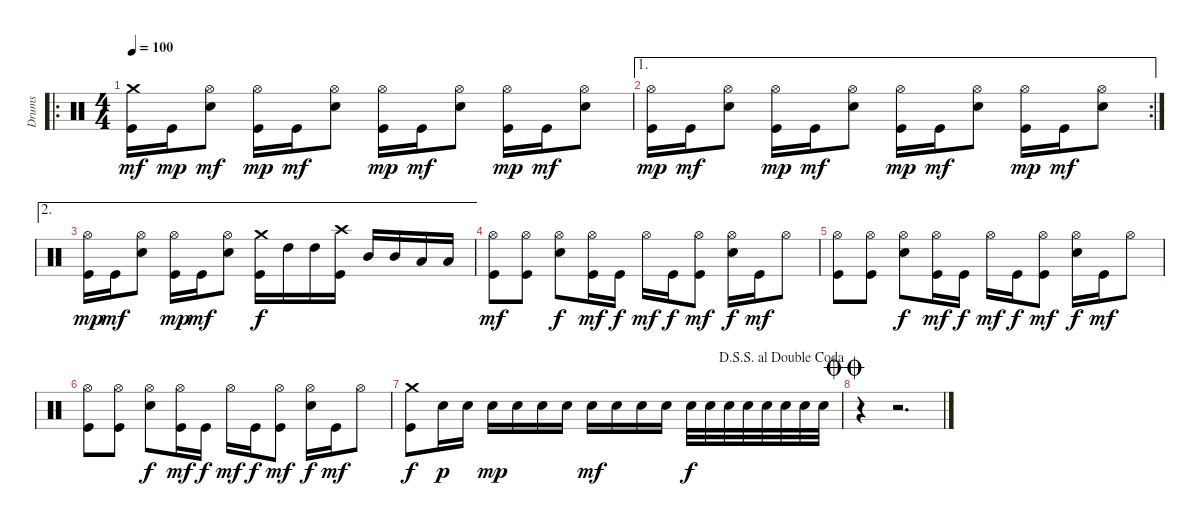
\bracketExtendMode groupsimilarinstruments
\otherSystemsTrackNameOrientation horizontal
\track ("Drumkit" "Drums") {multiBarRest instrument percussion}
\staff {score}
\articulation defaults
\ro
\ts (4 4)
\tempo 100
\clef neutral
\ks c
("Crash medium (hit)" "Kick (hit)").16{dy mf} "Kick (hit)".16{dy mp} ("Hi-Hat (open)" "Snare (hit) 2").8{dy mf} ("Kick (hit)" "Hi-Hat (open)").16{dy mp} "Kick (hit)".16{dy mf} ("Hi-Hat (open)" "Snare (hit) 2").8 ("Kick (hit)" "Hi-Hat (open)").16{dy mp} "Kick (hit)".16{dy mf} ("Hi-Hat (open)" "Snare (hit) 2").8 ("Kick (hit)" "Hi-Hat (open)").16{dy mp} "Kick (hit)".16{dy mf} ("Hi-Hat (open)" "Snare (hit) 2").8 |
\ae 1
\rc 2
("Kick (hit)" "Hi-Hat (open)").16{dy mp} "Kick (hit)".16{dy mf} ("Hi-Hat (open)" "Snare (hit) 2").8 ("Kick (hit)" "Hi-Hat (open)").16{dy mp} "Kick (hit)".16{dy mf} ("Hi-Hat (open)" "Snare (hit) 2").8 ("Kick (hit)" "Hi-Hat (open)").16{dy mp} "Kick (hit)".16{dy mf} ("Hi-Hat (open)" "Snare (hit) 2").8 ("Kick (hit)" "Hi-Hat (open)").16{dy mp} "Kick (hit)".16{dy mf} ("Hi-Hat (open)" "Snare (hit) 2").8 |
\ae 2
("Kick (hit)" "Hi-Hat (open)").16{dy mp} "Kick (hit)".16{dy mf} ("Hi-Hat (open)" "Snare (hit) 2").8 ("Kick (hit)" "Hi-Hat (open)").16{dy mp} "Kick (hit)".16{dy mf} ("Hi-Hat (open)" "Snare (hit) 2").8 ("Crash medium (hit)" "Kick (hit)").16{dy f} "High Tom (hit)".16 "High Tom (hit)".16 ("Crash high (hit)" "Kick (hit)").16 "Mid Tom (hit)".16 "Mid Tom (hit)".16 "Low Tom (hit)".16 "Low Tom (hit)".16 |
("Hi-Hat (open)" "Kick (hit)").8{dy mf} ("Hi-Hat (open)" "Kick (hit)").8 ("Snare (hit) 2" "Hi-Hat (open)").8{dy f} ("Hi-Hat (open)" "Kick (hit)").16{dy mf} "Kick (hit)".16{dy f} "Hi-Hat (open)".16{dy mf} "Kick (hit)".16{dy f} ("Hi-Hat (open)" "Kick (hit)").8{dy mf} ("Snare (hit) 2" "Hi-Hat (open)").16{dy f} "Kick (hit)".16{dy mf} "Hi-Hat (open)".8 |
("Hi-Hat (open)" "Kick (hit)").8 ("Hi-Hat (open)" "Kick (hit)").8 ("Snare (hit) 2" "Hi-Hat (open)").8{dy f} ("Hi-Hat (open)" "Kick (hit)").16{dy mf} "Kick (hit)".16{dy f} "Hi-Hat (open)".16{dy mf} "Kick (hit)".16{dy f} ("Hi-Hat (open)" "Kick (hit)").8{dy mf} ("Snare (hit) 2" "Hi-Hat (open)").16{dy f} "Kick (hit)".16{dy mf} "Hi-Hat (open)".8 |
("Hi-Hat (open)" "Kick (hit)").8 ("Hi-Hat (open)" "Kick (hit)").8 ("Snare (hit) 2" "Hi-Hat (open)").8{dy f} ("Hi-Hat (open)" "Kick (hit)").16{dy mf} "Kick (hit)".16{dy f} "Hi-Hat (open)".16{dy mf} "Kick (hit)".16{dy f} ("Hi-Hat (open)" "Kick (hit)").8{dy mf} ("Snare (hit) 2" "Hi-Hat (open)").16{dy f} "Kick (hit)".16{dy mf} "Hi-Hat (open)".8 |
\jump dalsegnosegnoaldoublecoda
("Crash medium (hit)" "Kick (hit)").8{dy f} "Snare (hit) 2".16{dy p} "Snare (hit) 2".16 "Snare (hit) 2".16{dy mp} "Snare (hit) 2".16 "Snare (hit) 2".16 "Snare (hit) 2".16 "Snare (hit) 2".16{dy mf} "Snare (hit) 2".16 "Snare (hit) 2".16 "Snare (hit) 2".16 "Snare (hit) 2".32{dy f} "Snare (hit) 2".32 "Snare (hit) 2".32 "Snare (hit) 2".32 "Snare (hit) 2".32 "Snare (hit) 2".32 "Snare (hit) 2".32 "Snare (hit) 2".32 |
\jump doublecoda
r.4 r.2{d}
